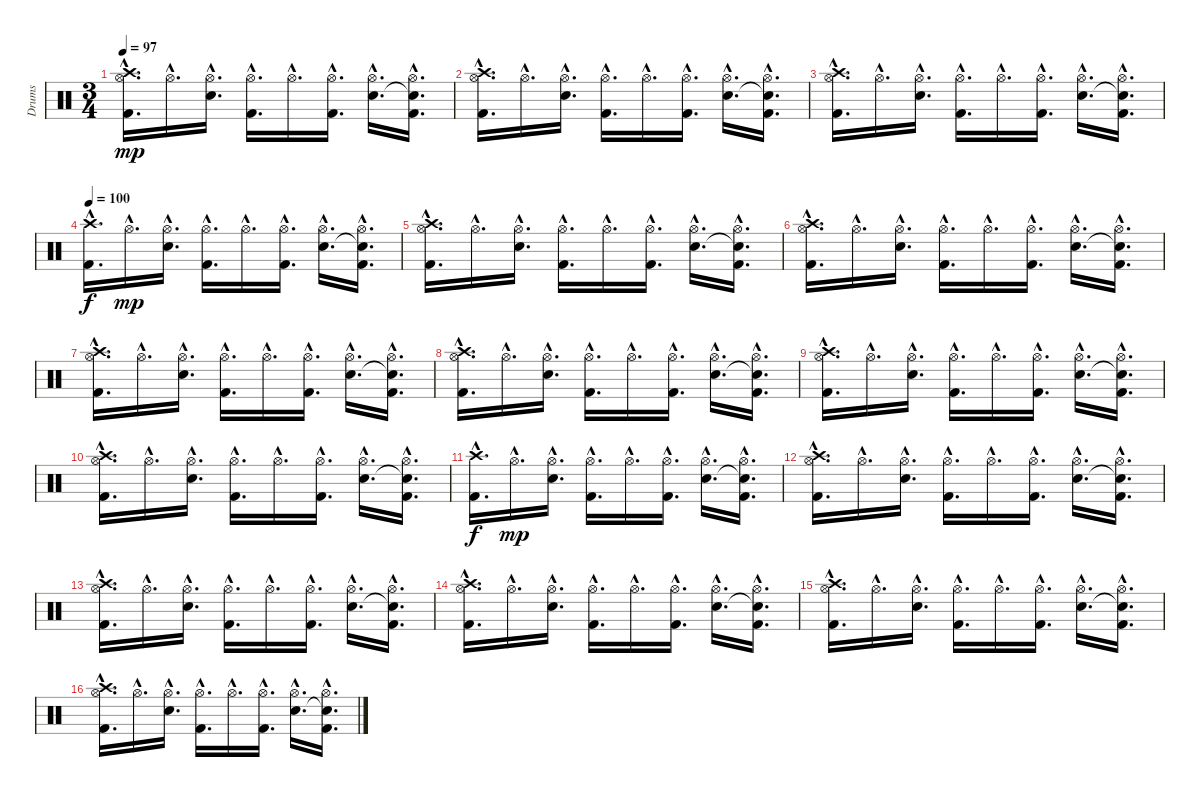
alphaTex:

\track ("Drums" "Drums") {instrument percussion}
\staff {score}
\articulation defaults
\ts (3 4)
\tempo 97
\clef neutral
\ks c
("Hi-Hat (open)"{hac} "Crash high (hit)"{hac} "Kick (hit) 2"{hac}).16{d dy mp} "Hi-Hat (open)"{hac}.16{d} ("Hi-Hat (open)"{hac} "Electric Snare (hit)"{hac}).16{d} ("Hi-Hat (open)"{hac} "Kick (hit) 2"{hac}).16{d} "Hi-Hat (open)"{hac}.16{d} ("Hi-Hat (open)"{hac} "Kick (hit) 2"{hac}).16{d} ("Hi-Hat (open)"{hac} "Electric Snare (hit)"{hac}).16{d} ("Hi-Hat (open)"{hac} "Snare (hit)"{hac t} "Kick (hit) 2"{hac}).16{d} |
("Hi-Hat (open)"{hac} "Crash high (hit)"{hac} "Kick (hit) 2"{hac}).16{d} "Hi-Hat (open)"{hac}.16{d} ("Hi-Hat (open)"{hac} "Electric Snare (hit)"{hac}).16{d} ("Hi-Hat (open)"{hac} "Kick (hit) 2"{hac}).16{d} "Hi-Hat (open)"{hac}.16{d} ("Hi-Hat (open)"{hac} "Kick (hit) 2"{hac}).16{d} ("Hi-Hat (open)"{hac} "Electric Snare (hit)"{hac}).16{d} ("Hi-Hat (open)"{hac} "Snare (hit)"{hac t} "Kick (hit) 2"{hac}).16{d} |
("Hi-Hat (open)"{hac} "Crash high (hit)"{hac} "Kick (hit) 2"{hac}).16{d} "Hi-Hat (open)"{hac}.16{d} ("Hi-Hat (open)"{hac} "Electric Snare (hit)"{hac}).16{d} ("Hi-Hat (open)"{hac} "Kick (hit) 2"{hac}).16{d} "Hi-Hat (open)"{hac}.16{d} ("Hi-Hat (open)"{hac} "Kick (hit) 2"{hac}).16{d} ("Hi-Hat (open)"{hac} "Electric Snare (hit)"{hac}).16{d} ("Hi-Hat (open)"{hac} "Snare (hit)"{hac t} "Kick (hit) 2"{hac}).16{d} |
\tempo 100
("Crash high (hit)"{hac} "Kick (hit) 2"{hac}).16{d dy f} "Hi-Hat (open)"{hac}.16{d dy mp} ("Hi-Hat (open)"{hac} "Electric Snare (hit)"{hac}).16{d} ("Hi-Hat (open)"{hac} "Kick (hit) 2"{hac}).16{d} "Hi-Hat (open)"{hac}.16{d} ("Hi-Hat (open)"{hac} "Kick (hit) 2"{hac}).16{d} ("Hi-Hat (open)"{hac} "Electric Snare (hit)"{hac}).16{d} ("Hi-Hat (open)"{hac} "Snare (hit)"{hac t} "Kick (hit) 2"{hac}).16{d} |
("Hi-Hat (open)"{hac} "Crash high (hit)"{hac} "Kick (hit) 2"{hac}).16{d} "Hi-Hat (open)"{hac}.16{d} ("Hi-Hat (open)"{hac} "Electric Snare (hit)"{hac}).16{d} ("Hi-Hat (open)"{hac} "Kick (hit) 2"{hac}).16{d} "Hi-Hat (open)"{hac}.16{d} ("Hi-Hat (open)"{hac} "Kick (hit) 2"{hac}).16{d} ("Hi-Hat (open)"{hac} "Electric Snare (hit)"{hac}).16{d} ("Hi-Hat (open)"{hac} "Snare (hit)"{hac t} "Kick (hit) 2"{hac}).16{d} |
("Hi-Hat (open)"{hac} "Crash high (hit)"{hac} "Kick (hit) 2"{hac}).16{d} "Hi-Hat (open)"{hac}.16{d} ("Hi-Hat (open)"{hac} "Electric Snare (hit)"{hac}).16{d} ("Hi-Hat (open)"{hac} "Kick (hit) 2"{hac}).16{d} "Hi-Hat (open)"{hac}.16{d} ("Hi-Hat (open)"{hac} "Kick (hit) 2"{hac}).16{d} ("Hi-Hat (open)"{hac} "Electric Snare (hit)"{hac}).16{d} ("Hi-Hat (open)"{hac} "Snare (hit)"{hac t} "Kick (hit) 2"{hac}).16{d} |
("Hi-Hat (open)"{hac} "Crash high (hit)"{hac} "Kick (hit) 2"{hac}).16{d} "Hi-Hat (open)"{hac}.16{d} ("Hi-Hat (open)"{hac} "Electric Snare (hit)"{hac}).16{d} ("Hi-Hat (open)"{hac} "Kick (hit) 2"{hac}).16{d} "Hi-Hat (open)"{hac}.16{d} ("Hi-Hat (open)"{hac} "Kick (hit) 2"{hac}).16{d} ("Hi-Hat (open)"{hac} "Electric Snare (hit)"{hac}).16{d} ("Hi-Hat (open)"{hac} "Snare (hit)"{hac t} "Kick (hit) 2"{hac}).16{d} |
("Hi-Hat (open)"{hac} "Crash high (hit)"{hac} "Kick (hit) 2"{hac}).16{d} "Hi-Hat (open)"{hac}.16{d} ("Hi-Hat (open)"{hac} "Electric Snare (hit)"{hac}).16{d} ("Hi-Hat (open)"{hac} "Kick (hit) 2"{hac}).16{d} "Hi-Hat (open)"{hac}.16{d} ("Hi-Hat (open)"{hac} "Kick (hit) 2"{hac}).16{d} ("Hi-Hat (open)"{hac} "Electric Snare (hit)"{hac}).16{d} ("Hi-Hat (open)"{hac} "Snare (hit)"{hac t} "Kick (hit) 2"{hac}).16{d} |
("Hi-Hat (open)"{hac} "Crash high (hit)"{hac} "Kick (hit) 2"{hac}).16{d} "Hi-Hat (open)"{hac}.16{d} ("Hi-Hat (open)"{hac} "Electric Snare (hit)"{hac}).16{d} ("Hi-Hat (open)"{hac} "Kick (hit) 2"{hac}).16{d} "Hi-Hat (open)"{hac}.16{d} ("Hi-Hat (open)"{hac} "Kick (hit) 2"{hac}).16{d} ("Hi-Hat (open)"{hac} "Electric Snare (hit)"{hac}).16{d} ("Hi-Hat (open)"{hac} "Snare (hit)"{hac t} "Kick (hit) 2"{hac}).16{d} |
("Hi-Hat (open)"{hac} "Crash high (hit)"{hac} "Kick (hit) 2"{hac}).16{d} "Hi-Hat (open)"{hac}.16{d} ("Hi-Hat (open)"{hac} "Electric Snare (hit)"{hac}).16{d} ("Hi-Hat (open)"{hac} "Kick (hit) 2"{hac}).16{d} "Hi-Hat (open)"{hac}.16{d} ("Hi-Hat (open)"{hac} "Kick (hit) 2"{hac}).16{d} ("Hi-Hat (open)"{hac} "Electric Snare (hit)"{hac}).16{d} ("Hi-Hat (open)"{hac} "Snare (hit)"{hac t} "Kick (hit) 2"{hac}).16{d} |
("Crash high (hit)"{hac} "Kick (hit) 2"{hac}).16{d dy f} "Hi-Hat (open)"{hac}.16{d dy mp} ("Hi-Hat (open)"{hac} "Electric Snare (hit)"{hac}).16{d} ("Hi-Hat (open)"{hac} "Kick (hit) 2"{hac}).16{d} "Hi-Hat (open)"{hac}.16{d} ("Hi-Hat (open)"{hac} "Kick (hit) 2"{hac}).16{d} ("Hi-Hat (open)"{hac} "Electric Snare (hit)"{hac}).16{d} ("Hi-Hat (open)"{hac} "Snare (hit)"{hac t} "Kick (hit) 2"{hac}).16{d} |
("Hi-Hat (open)"{hac} "Crash high (hit)"{hac} "Kick (hit) 2"{hac}).16{d} "Hi-Hat (open)"{hac}.16{d} ("Hi-Hat (open)"{hac} "Electric Snare (hit)"{hac}).16{d} ("Hi-Hat (open)"{hac} "Kick (hit) 2"{hac}).16{d} "Hi-Hat (open)"{hac}.16{d} ("Hi-Hat (open)"{hac} "Kick (hit) 2"{hac}).16{d} ("Hi-Hat (open)"{hac} "Electric Snare (hit)"{hac}).16{d} ("Hi-Hat (open)"{hac} "Snare (hit)"{hac t} "Kick (hit) 2"{hac}).16{d} |
("Hi-Hat (open)"{hac} "Crash high (hit)"{hac} "Kick (hit) 2"{hac}).16{d} "Hi-Hat (open)"{hac}.16{d} ("Hi-Hat (open)"{hac} "Electric Snare (hit)"{hac}).16{d} ("Hi-Hat (open)"{hac} "Kick (hit) 2"{hac}).16{d} "Hi-Hat (open)"{hac}.16{d} ("Hi-Hat (open)"{hac} "Kick (hit) 2"{hac}).16{d} ("Hi-Hat (open)"{hac} "Electric Snare (hit)"{hac}).16{d} ("Hi-Hat (open)"{hac} "Snare (hit)"{hac t} "Kick (hit) 2"{hac}).16{d} |
("Hi-Hat (open)"{hac} "Crash high (hit)"{hac} "Kick (hit) 2"{hac}).16{d} "Hi-Hat (open)"{hac}.16{d} ("Hi-Hat (open)"{hac} "Electric Snare (hit)"{hac}).16{d} ("Hi-Hat (open)"{hac} "Kick (hit) 2"{hac}).16{d} "Hi-Hat (open)"{hac}.16{d} ("Hi-Hat (open)"{hac} "Kick (hit) 2"{hac}).16{d} ("Hi-Hat (open)"{hac} "Electric Snare (hit)"{hac}).16{d} ("Hi-Hat (open)"{hac} "Snare (hit)"{hac t} "Kick (hit) 2"{hac}).16{d} |
("Hi-Hat (open)"{hac} "Crash high (hit)"{hac} "Kick (hit) 2"{hac}).16{d} "Hi-Hat (open)"{hac}.16{d} ("Hi-Hat (open)"{hac} "Electric Snare (hit)"{hac}).16{d} ("Hi-Hat (open)"{hac} "Kick (hit) 2"{hac}).16{d} "Hi-Hat (open)"{hac}.16{d} ("Hi-Hat (open)"{hac} "Kick (hit) 2"{hac}).16{d} ("Hi-Hat (open)"{hac} "Electric Snare (hit)"{hac}).16{d} ("Hi-Hat (open)"{hac} "Snare (hit)"{hac t} "Kick (hit) 2"{hac}).16{d} |
("Hi-Hat (open)"{hac} "Crash high (hit)"{hac} "Kick (hit) 2"{hac}).16{d} "Hi-Hat (open)"{hac}.16{d} ("Hi-Hat (open)"{hac} "Electric Snare (hit)"{hac}).16{d} ("Hi-Hat (open)"{hac} "Kick (hit) 2"{hac}).16{d} "Hi-Hat (open)"{hac}.16{d} ("Hi-Hat (open)"{hac} "Kick (hit) 2"{hac}).16{d} ("Hi-Hat (open)"{hac} "Electric Snare (hit)"{hac}).16{d} ("Hi-Hat (open)"{hac} "Snare (hit)"{hac t} "Kick (hit) 2"{hac}).16{d}
